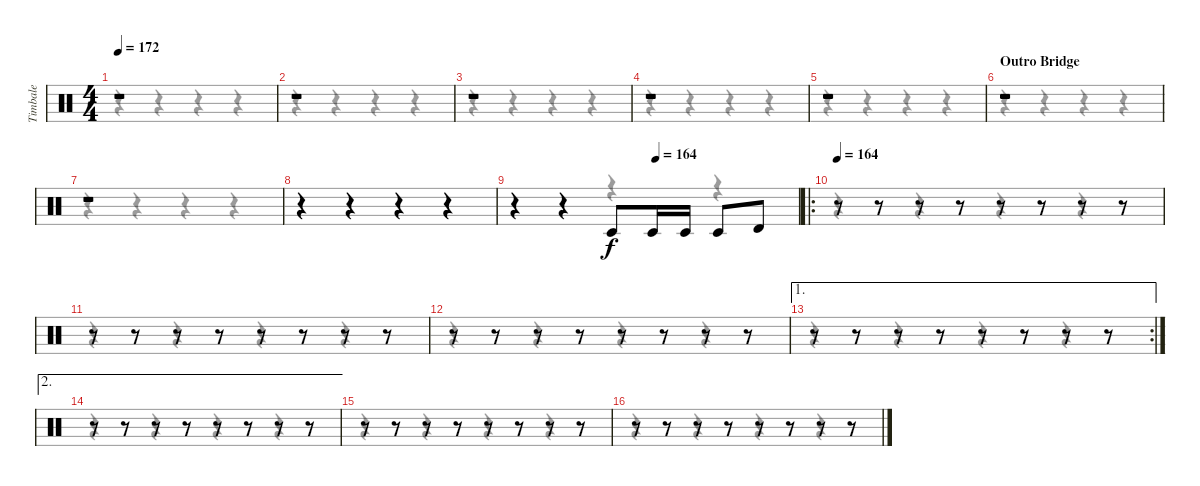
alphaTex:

\track ("Timbale" "Timbale") {instrument percussion}
\staff {score}
\articulation defaults
\voice
\ts (4 4)
\tempo 172
\clef neutral
\ks c
r.1{dy f} |
r.1 |
r.1 |
r.1 |
r.1 |
\section ("" "Outro Bridge")
r.1 |
r.1 |
r.4 r.4 r.4 r.4 |
\tempo (164 0.5)
r.4 r.4 "Timbale low (hit)".8 "Timbale low (hit)".16 "Timbale low (hit)".16 "Timbale low (hit)".8 "Timbale high (hit)".8 |
\ro
\tempo 164
r.8 r.8 r.8 r.8 r.8 r.8 r.8 r.8 |
r.8 r.8 r.8 r.8 r.8 r.8 r.8 r.8 |
r.8 r.8 r.8 r.8 r.8 r.8 r.8 r.8 |
\ae 1
\rc 2
r.8 r.8 r.8 r.8 r.8 r.8 r.8 r.8 |
\ae 2
r.8 r.8 r.8 r.8 r.8 r.8 r.8 r.8 |
r.8 r.8 r.8 r.8 r.8 r.8 r.8 r.8 |
r.8 r.8 r.8 r.8 r.8 r.8 r.8 r.8
\voice
\clef neutral
\ottava regular
\simile none
\ks c
r.4{dy f} r.4 r.4 r.4 |
r.4 r.4 r.4 r.4 |
r.4 r.4 r.4 r.4 |
r.4 r.4 r.4 r.4 |
r.4 r.4 r.4 r.4 |
r.4 r.4 r.4 r.4 |
r.4 r.4 r.4 r.4 |
r.4 r.4 r.4 r.4 |
r.4 r.4 r.4 r.4 |
r.4 r.4 r.4 r.4 |
r.4 r.4 r.4 r.4 |
r.4 r.4 r.4 r.4 |
r.4 r.4 r.4 r.4 |
r.4 r.4 r.4 r.4 |
r.4 r.4 r.4 r.4 |
r.4 r.4 r.4 r.4
